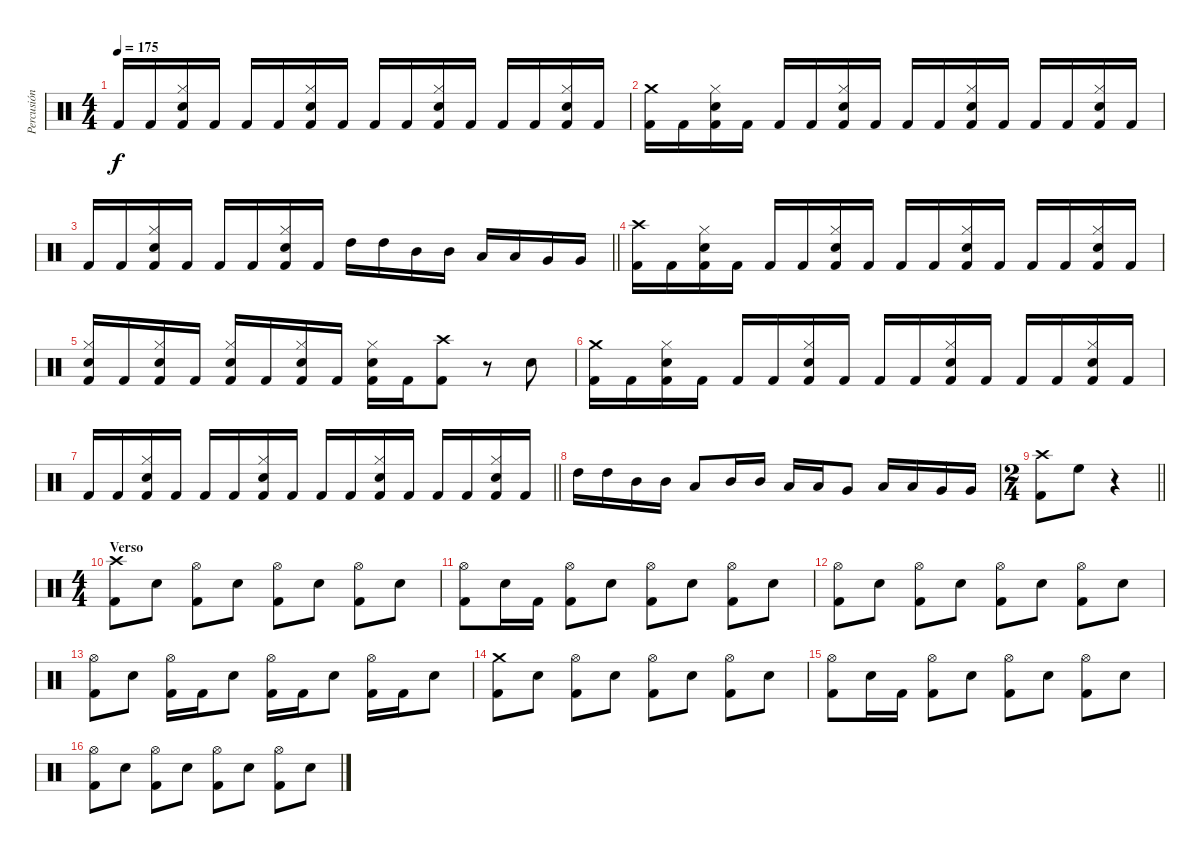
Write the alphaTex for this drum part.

\track ("Percusión" "Percusión") {instrument percussion}
\staff {score}
\articulation defaults
\ts (4 4)
\tempo 175
\clef neutral
\ks c "Kick (hit) 2".16{dy f} "Kick (hit) 2".16
("Hi-Hat (closed)" "Snare (hit) 2" "Kick (hit) 2").16 "Kick (hit) 2".16 "Kick (hit) 2".16 "Kick (hit) 2".16 ("Hi-Hat (closed)" "Snare (hit) 2" "Kick (hit) 2").16 "Kick (hit) 2".16 "Kick (hit) 2".16 "Kick (hit) 2".16 ("Hi-Hat (closed)" "Snare (hit) 2" "Kick (hit) 2").16 "Kick (hit) 2".16 "Kick (hit) 2".16 "Kick (hit) 2".16 ("Hi-Hat (closed)" "Snare (hit) 2" "Kick (hit) 2").16 "Kick (hit) 2".16 |
("Crash medium (hit)" "Kick (hit) 2").16 "Kick (hit) 2".16 ("Hi-Hat (closed)" "Snare (hit) 2" "Kick (hit) 2").16 "Kick (hit) 2".16 "Kick (hit) 2".16 "Kick (hit) 2".16 ("Hi-Hat (closed)" "Snare (hit) 2" "Kick (hit) 2").16 "Kick (hit) 2".16 "Kick (hit) 2".16 "Kick (hit) 2".16 ("Hi-Hat (closed)" "Snare (hit) 2" "Kick (hit) 2").16 "Kick (hit) 2".16 "Kick (hit) 2".16 "Kick (hit) 2".16 ("Hi-Hat (closed)" "Snare (hit) 2" "Kick (hit) 2").16 "Kick (hit) 2".16 |
\barLineRight lightlight "Kick (hit) 2".16 "Kick (hit) 2".16
("Hi-Hat (closed)" "Snare (hit) 2" "Kick (hit) 2").16 "Kick (hit) 2".16 "Kick (hit) 2".16 "Kick (hit) 2".16 ("Hi-Hat (closed)" "Snare (hit) 2" "Kick (hit) 2").16 "Kick (hit) 2".16 "High Tom (hit)".16 "High Tom (hit)".16 "Mid Tom (hit)".16 "Mid Tom (hit)".16 "Low Tom (hit)".16 "Low Tom (hit)".16 "Very Low Tom (hit)".16 "Very Low Tom (hit)".16 |
\section ("" "")
("Crash high (hit)" "Kick (hit) 2").16 "Kick (hit) 2".16 ("Hi-Hat (closed)" "Snare (hit) 2" "Kick (hit) 2").16 "Kick (hit) 2".16 "Kick (hit) 2".16 "Kick (hit) 2".16 ("Hi-Hat (closed)" "Snare (hit) 2" "Kick (hit) 2").16 "Kick (hit) 2".16 "Kick (hit) 2".16 "Kick (hit) 2".16 ("Hi-Hat (closed)" "Snare (hit) 2" "Kick (hit) 2").16 "Kick (hit) 2".16 "Kick (hit) 2".16 "Kick (hit) 2".16 ("Hi-Hat (closed)" "Snare (hit) 2" "Kick (hit) 2").16 "Kick (hit) 2".16 |
("Hi-Hat (closed)" "Snare (hit) 2" "Kick (hit) 2").16 "Kick (hit) 2".16 ("Hi-Hat (closed)" "Snare (hit) 2" "Kick (hit) 2").16 "Kick (hit) 2".16 ("Hi-Hat (closed)" "Snare (hit) 2" "Kick (hit) 2").16 "Kick (hit) 2".16 ("Hi-Hat (closed)" "Snare (hit) 2" "Kick (hit) 2").16 "Kick (hit) 2".16 ("Hi-Hat (closed)" "Snare (hit) 2" "Kick (hit) 2").16 "Kick (hit) 2".16 ("Crash high (hit)" "Kick (hit) 2").8 r.8 "Snare (hit) 2".8 |
("Crash medium (hit)" "Kick (hit) 2").16 "Kick (hit) 2".16 ("Hi-Hat (closed)" "Snare (hit) 2" "Kick (hit) 2").16 "Kick (hit) 2".16 "Kick (hit) 2".16 "Kick (hit) 2".16 ("Hi-Hat (closed)" "Snare (hit) 2" "Kick (hit) 2").16 "Kick (hit) 2".16 "Kick (hit) 2".16 "Kick (hit) 2".16 ("Hi-Hat (closed)" "Snare (hit) 2" "Kick (hit) 2").16 "Kick (hit) 2".16 "Kick (hit) 2".16 "Kick (hit) 2".16 ("Hi-Hat (closed)" "Snare (hit) 2" "Kick (hit) 2").16 "Kick (hit) 2".16 |
\barLineRight lightlight "Kick (hit) 2".16 "Kick (hit) 2".16
("Hi-Hat (closed)" "Snare (hit) 2" "Kick (hit) 2").16 "Kick (hit) 2".16 "Kick (hit) 2".16 "Kick (hit) 2".16 ("Hi-Hat (closed)" "Snare (hit) 2" "Kick (hit) 2").16 "Kick (hit) 2".16 "Kick (hit) 2".16 "Kick (hit) 2".16 ("Hi-Hat (closed)" "Snare (hit) 2" "Kick (hit) 2").16 "Kick (hit) 2".16 "Kick (hit) 2".16 "Kick (hit) 2".16 ("Hi-Hat (closed)" "Snare (hit) 2" "Kick (hit) 2").16 "Kick (hit) 2".16 |
"High Tom (hit)".16 "High Tom (hit)".16 "Mid Tom (hit)".16 "Mid Tom (hit)".16 "Low Tom (hit)".8 "Mid Tom (hit)".16 "Mid Tom (hit)".16 "Low Tom (hit)".16 "Low Tom (hit)".16 "Very Low Tom (hit)".8 "Low Tom (hit)".16 "Low Tom (hit)".16 "Very Low Tom (hit)".16 "Very Low Tom (hit)".16 |
\ts (2 4)
\barLineRight lightlight
("Crash high (hit)" "Kick (hit) 2").8 "High Floor Tom (hit)".8 r.4 |
\ts (4 4)
\section ("" "Verso")
("Crash high (hit)" "Kick (hit) 2").8 "Snare (hit) 2".8 ("Hi-Hat (open)" "Kick (hit) 2").8 "Snare (hit) 2".8 ("Hi-Hat (open)" "Kick (hit) 2").8 "Snare (hit) 2".8 ("Hi-Hat (open)" "Kick (hit) 2").8 "Snare (hit) 2".8 |
("Hi-Hat (open)" "Kick (hit) 2").8 "Snare (hit) 2".16 "Kick (hit) 2".16 ("Hi-Hat (open)" "Kick (hit) 2").8 "Snare (hit) 2".8 ("Hi-Hat (open)" "Kick (hit) 2").8 "Snare (hit) 2".8 ("Hi-Hat (open)" "Kick (hit) 2").8 "Snare (hit) 2".8 |
("Hi-Hat (open)" "Kick (hit) 2").8 "Snare (hit) 2".8 ("Hi-Hat (open)" "Kick (hit) 2").8 "Snare (hit) 2".8 ("Hi-Hat (open)" "Kick (hit) 2").8 "Snare (hit) 2".8 ("Hi-Hat (open)" "Kick (hit) 2").8 "Snare (hit) 2".8 |
("Hi-Hat (open)" "Kick (hit) 2").8 "Snare (hit) 2".8 ("Hi-Hat (open)" "Kick (hit) 2").16 "Kick (hit) 2".16 "Snare (hit) 2".8 ("Hi-Hat (open)" "Kick (hit) 2").16 "Kick (hit) 2".16 "Snare (hit) 2".8 ("Hi-Hat (open)" "Kick (hit) 2").16 "Kick (hit) 2".16 "Snare (hit) 2".8 |
("Crash medium (hit)" "Kick (hit) 2").8 "Snare (hit) 2".8 ("Hi-Hat (open)" "Kick (hit) 2").8 "Snare (hit) 2".8 ("Hi-Hat (open)" "Kick (hit) 2").8 "Snare (hit) 2".8 ("Hi-Hat (open)" "Kick (hit) 2").8 "Snare (hit) 2".8 |
("Hi-Hat (open)" "Kick (hit) 2").8 "Snare (hit) 2".16 "Kick (hit) 2".16 ("Hi-Hat (open)" "Kick (hit) 2").8 "Snare (hit) 2".8 ("Hi-Hat (open)" "Kick (hit) 2").8 "Snare (hit) 2".8 ("Hi-Hat (open)" "Kick (hit) 2").8 "Snare (hit) 2".8 |
("Hi-Hat (open)" "Kick (hit) 2").8 "Snare (hit) 2".8 ("Hi-Hat (open)" "Kick (hit) 2").8 "Snare (hit) 2".8 ("Hi-Hat (open)" "Kick (hit) 2").8 "Snare (hit) 2".8 ("Hi-Hat (open)" "Kick (hit) 2").8 "Snare (hit) 2".8
